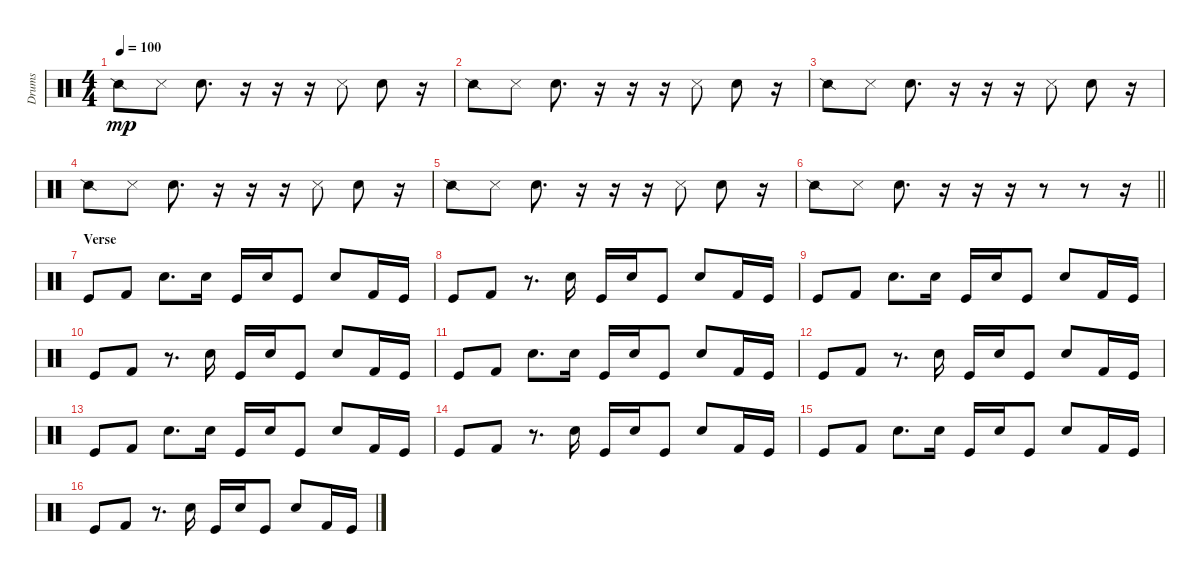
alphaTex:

\track ("Drums" "Drums") {instrument percussion}
\staff {score}
\articulation defaults
\ts (4 4)
\tempo 100
\clef neutral
\ks c "Snare (side stick) 2".8{dy mp} "Snare (side stick) 3".8 "Hand Clap (hit)".8{d}
r.16 r.16 r.16 "Snare (side stick) 3".8 "Hand Clap (hit)".8 r.16 |
"Snare (side stick) 2".8 "Snare (side stick) 3".8 "Hand Clap (hit)".8{d} r.16 r.16 r.16 "Snare (side stick) 3".8 "Hand Clap (hit)".8 r.16 |
"Snare (side stick) 2".8 "Snare (side stick) 3".8 "Hand Clap (hit)".8{d} r.16 r.16 r.16 "Snare (side stick) 3".8 "Hand Clap (hit)".8 r.16 |
"Snare (side stick) 2".8 "Snare (side stick) 3".8 "Hand Clap (hit)".8{d} r.16 r.16 r.16 "Snare (side stick) 3".8 "Hand Clap (hit)".8 r.16 |
"Snare (side stick) 2".8 "Snare (side stick) 3".8 "Hand Clap (hit)".8{d} r.16 r.16 r.16 "Snare (side stick) 3".8 "Hand Clap (hit)".8 r.16 |
\barLineRight lightlight "Snare (side stick) 2".8 "Snare (side stick) 3".8 "Hand Clap (hit)".8{d}
r.16 r.16 r.16 r.8 r.8 r.16 |
\section ("" "Verse")
"Kick (hit)".8 "Kick (hit) 2".8 "Electric Snare (hit)".8{d} "Electric Snare (hit)".16 "Kick (hit)".16 "Electric Snare (hit)".16 "Kick (hit)".8 "Electric Snare (hit)".8 "Kick (hit) 2".16 "Kick (hit)".16 |
"Kick (hit)".8 "Kick (hit) 2".8 r.8{d} "Electric Snare (hit)".16 "Kick (hit)".16 "Electric Snare (hit)".16 "Kick (hit)".8 "Electric Snare (hit)".8 "Kick (hit) 2".16 "Kick (hit)".16 |
"Kick (hit)".8 "Kick (hit) 2".8 "Electric Snare (hit)".8{d} "Electric Snare (hit)".16 "Kick (hit)".16 "Electric Snare (hit)".16 "Kick (hit)".8 "Electric Snare (hit)".8 "Kick (hit) 2".16 "Kick (hit)".16 |
"Kick (hit)".8 "Kick (hit) 2".8 r.8{d} "Electric Snare (hit)".16 "Kick (hit)".16 "Electric Snare (hit)".16 "Kick (hit)".8 "Electric Snare (hit)".8 "Kick (hit) 2".16 "Kick (hit)".16 |
"Kick (hit)".8 "Kick (hit) 2".8 "Electric Snare (hit)".8{d} "Electric Snare (hit)".16 "Kick (hit)".16 "Electric Snare (hit)".16 "Kick (hit)".8 "Electric Snare (hit)".8 "Kick (hit) 2".16 "Kick (hit)".16 |
"Kick (hit)".8 "Kick (hit) 2".8 r.8{d} "Electric Snare (hit)".16 "Kick (hit)".16 "Electric Snare (hit)".16 "Kick (hit)".8 "Electric Snare (hit)".8 "Kick (hit) 2".16 "Kick (hit)".16 |
"Kick (hit)".8 "Kick (hit) 2".8 "Electric Snare (hit)".8{d} "Electric Snare (hit)".16 "Kick (hit)".16 "Electric Snare (hit)".16 "Kick (hit)".8 "Electric Snare (hit)".8 "Kick (hit) 2".16 "Kick (hit)".16 |
"Kick (hit)".8 "Kick (hit) 2".8 r.8{d} "Electric Snare (hit)".16 "Kick (hit)".16 "Electric Snare (hit)".16 "Kick (hit)".8 "Electric Snare (hit)".8 "Kick (hit) 2".16 "Kick (hit)".16 |
"Kick (hit)".8 "Kick (hit) 2".8 "Electric Snare (hit)".8{d} "Electric Snare (hit)".16 "Kick (hit)".16 "Electric Snare (hit)".16 "Kick (hit)".8 "Electric Snare (hit)".8 "Kick (hit) 2".16 "Kick (hit)".16 |
"Kick (hit)".8 "Kick (hit) 2".8 r.8{d} "Electric Snare (hit)".16 "Kick (hit)".16 "Electric Snare (hit)".16 "Kick (hit)".8 "Electric Snare (hit)".8 "Kick (hit) 2".16 "Kick (hit)".16
